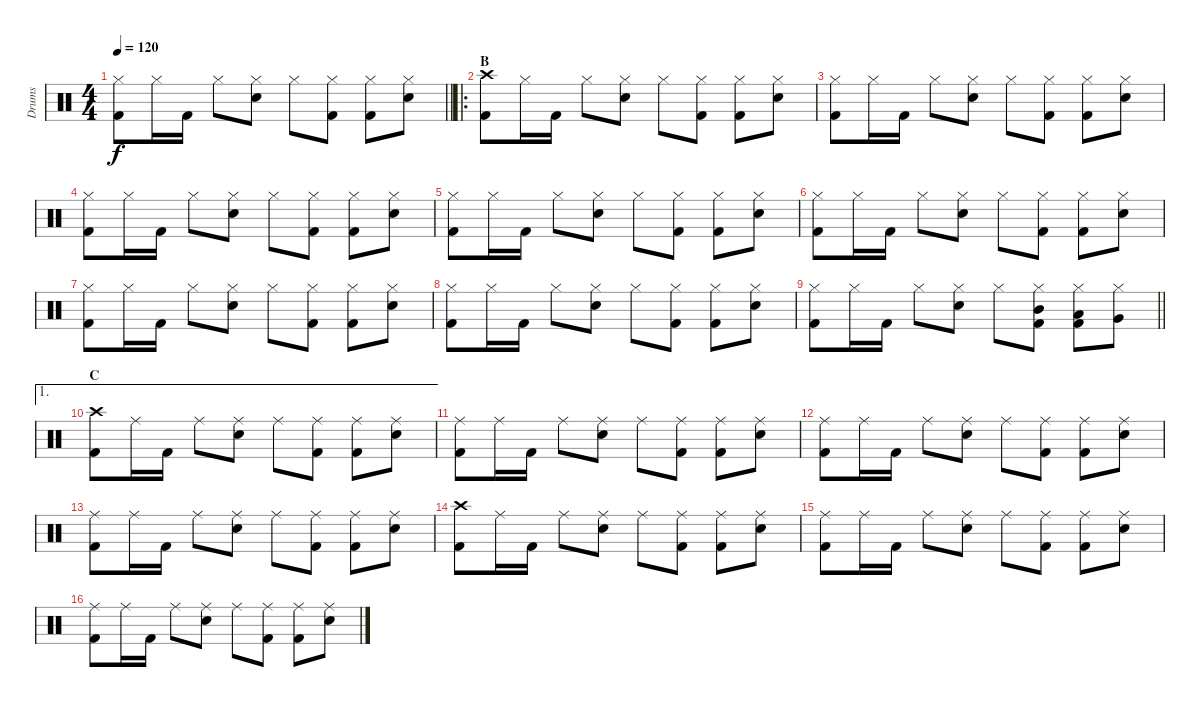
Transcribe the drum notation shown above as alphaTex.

\track ("Drums" "Drums") {instrument percussion}
\staff {score}
\articulation defaults
\ts (4 4)
\tempo 120
\clef neutral
\barLineRight lightlight
\ks c
("Hi-Hat (closed)" "Kick (hit) 2").8{dy f} "Hi-Hat (closed)".16 "Kick (hit) 2".16 "Hi-Hat (closed)".8 ("Hi-Hat (closed)" "Snare (hit) 2").8 "Hi-Hat (closed)".8 ("Hi-Hat (closed)" "Kick (hit) 2").8 ("Hi-Hat (closed)" "Kick (hit) 2").8 ("Hi-Hat (closed)" "Snare (hit) 2").8 |
\ro
\section ("" "B")
("Crash high (hit)" "Kick (hit) 2").8 "Hi-Hat (closed)".16 "Kick (hit) 2".16 "Hi-Hat (closed)".8 ("Hi-Hat (closed)" "Snare (hit) 2").8 "Hi-Hat (closed)".8 ("Hi-Hat (closed)" "Kick (hit) 2").8 ("Hi-Hat (closed)" "Kick (hit) 2").8 ("Hi-Hat (closed)" "Snare (hit) 2").8 |
("Hi-Hat (closed)" "Kick (hit) 2").8 "Hi-Hat (closed)".16 "Kick (hit) 2".16 "Hi-Hat (closed)".8 ("Hi-Hat (closed)" "Snare (hit) 2").8 "Hi-Hat (closed)".8 ("Hi-Hat (closed)" "Kick (hit) 2").8 ("Hi-Hat (closed)" "Kick (hit) 2").8 ("Hi-Hat (closed)" "Snare (hit) 2").8 |
("Hi-Hat (closed)" "Kick (hit) 2").8 "Hi-Hat (closed)".16 "Kick (hit) 2".16 "Hi-Hat (closed)".8 ("Hi-Hat (closed)" "Snare (hit) 2").8 "Hi-Hat (closed)".8 ("Hi-Hat (closed)" "Kick (hit) 2").8 ("Hi-Hat (closed)" "Kick (hit) 2").8 ("Hi-Hat (closed)" "Snare (hit) 2").8 |
("Hi-Hat (closed)" "Kick (hit) 2").8 "Hi-Hat (closed)".16 "Kick (hit) 2".16 "Hi-Hat (closed)".8 ("Hi-Hat (closed)" "Snare (hit) 2").8 "Hi-Hat (closed)".8 ("Hi-Hat (closed)" "Kick (hit) 2").8 ("Hi-Hat (closed)" "Kick (hit) 2").8 ("Hi-Hat (closed)" "Snare (hit) 2").8 |
("Hi-Hat (closed)" "Kick (hit) 2").8 "Hi-Hat (closed)".16 "Kick (hit) 2".16 "Hi-Hat (closed)".8 ("Hi-Hat (closed)" "Snare (hit) 2").8 "Hi-Hat (closed)".8 ("Hi-Hat (closed)" "Kick (hit) 2").8 ("Hi-Hat (closed)" "Kick (hit) 2").8 ("Hi-Hat (closed)" "Snare (hit) 2").8 |
("Hi-Hat (closed)" "Kick (hit) 2").8 "Hi-Hat (closed)".16 "Kick (hit) 2".16 "Hi-Hat (closed)".8 ("Hi-Hat (closed)" "Snare (hit) 2").8 "Hi-Hat (closed)".8 ("Hi-Hat (closed)" "Kick (hit) 2").8 ("Hi-Hat (closed)" "Kick (hit) 2").8 ("Hi-Hat (closed)" "Snare (hit) 2").8 |
("Hi-Hat (closed)" "Kick (hit) 2").8 "Hi-Hat (closed)".16 "Kick (hit) 2".16 "Hi-Hat (closed)".8 ("Hi-Hat (closed)" "Snare (hit) 2").8 "Hi-Hat (closed)".8 ("Hi-Hat (closed)" "Kick (hit) 2").8 ("Hi-Hat (closed)" "Kick (hit) 2").8 ("Hi-Hat (closed)" "Snare (hit) 2").8 |
\barLineRight lightlight
("Hi-Hat (closed)" "Kick (hit) 2").8 "Hi-Hat (closed)".16 "Kick (hit) 2".16 "Hi-Hat (closed)".8 ("Hi-Hat (closed)" "Snare (hit) 2").8 "Hi-Hat (closed)".8 ("Hi-Hat (closed)" "Mid Tom (hit)" "Kick (hit) 2").8 ("Hi-Hat (closed)" "Low Tom (hit)" "Kick (hit) 2").8 ("Hi-Hat (closed)" "Very Low Tom (hit)").8 |
\ae 1
\section ("" "C")
("Crash high (hit)" "Kick (hit) 2").8 "Ride (middle)".16 "Kick (hit) 2".16 "Ride (middle)".8 ("Ride (middle)" "Snare (hit) 2").8 "Ride (middle)".8 ("Ride (middle)" "Kick (hit) 2").8 ("Ride (middle)" "Kick (hit) 2").8 ("Ride (middle)" "Snare (hit) 2").8 |
("Ride (middle)" "Kick (hit) 2").8 "Ride (middle)".16 "Kick (hit) 2".16 "Ride (middle)".8 ("Ride (middle)" "Snare (hit) 2").8 "Ride (middle)".8 ("Ride (middle)" "Kick (hit) 2").8 ("Ride (middle)" "Kick (hit) 2").8 ("Ride (middle)" "Snare (hit) 2").8 |
("Ride (middle)" "Kick (hit) 2").8 "Ride (middle)".16 "Kick (hit) 2".16 "Ride (middle)".8 ("Ride (middle)" "Snare (hit) 2").8 "Ride (middle)".8 ("Ride (middle)" "Kick (hit) 2").8 ("Ride (middle)" "Kick (hit) 2").8 ("Ride (middle)" "Snare (hit) 2").8 |
("Ride (middle)" "Kick (hit) 2").8 "Ride (middle)".16 "Kick (hit) 2".16 "Ride (middle)".8 ("Ride (middle)" "Snare (hit) 2").8 "Ride (middle)".8 ("Ride (middle)" "Kick (hit) 2").8 ("Ride (middle)" "Kick (hit) 2").8 ("Ride (middle)" "Snare (hit) 2").8 |
("Crash high (hit)" "Kick (hit) 2").8 "Ride (middle)".16 "Kick (hit) 2".16 "Ride (middle)".8 ("Ride (middle)" "Snare (hit) 2").8 "Ride (middle)".8 ("Ride (middle)" "Kick (hit) 2").8 ("Ride (middle)" "Kick (hit) 2").8 ("Ride (middle)" "Snare (hit) 2").8 |
("Ride (middle)" "Kick (hit) 2").8 "Ride (middle)".16 "Kick (hit) 2".16 "Ride (middle)".8 ("Ride (middle)" "Snare (hit) 2").8 "Ride (middle)".8 ("Ride (middle)" "Kick (hit) 2").8 ("Ride (middle)" "Kick (hit) 2").8 ("Ride (middle)" "Snare (hit) 2").8 |
("Ride (middle)" "Kick (hit) 2").8 "Ride (middle)".16 "Kick (hit) 2".16 "Ride (middle)".8 ("Ride (middle)" "Snare (hit) 2").8 "Ride (middle)".8 ("Ride (middle)" "Kick (hit) 2").8 ("Ride (middle)" "Kick (hit) 2").8 ("Ride (middle)" "Snare (hit) 2").8
